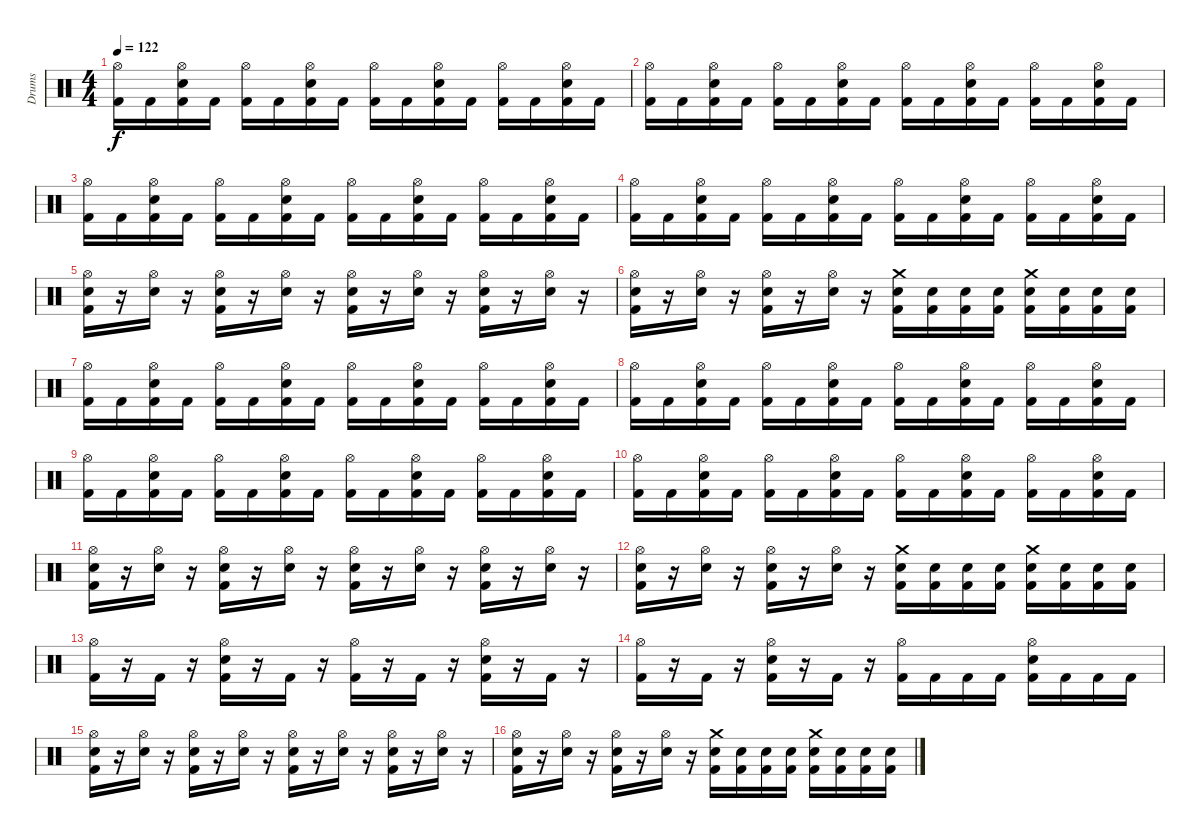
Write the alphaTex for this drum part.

\track ("Drums" "Drums") {instrument percussion}
\staff {score}
\articulation defaults
\ts (4 4)
\tempo 122
\clef neutral
\ks c
("Hi-Hat (open)" "Kick (hit) 2").16{dy f} "Kick (hit) 2".16 ("Hi-Hat (open)" "Snare (hit) 2" "Kick (hit) 2").16 "Kick (hit) 2".16 ("Hi-Hat (open)" "Kick (hit) 2").16 "Kick (hit) 2".16 ("Hi-Hat (open)" "Snare (hit) 2" "Kick (hit) 2").16 "Kick (hit) 2".16 ("Hi-Hat (open)" "Kick (hit) 2").16 "Kick (hit) 2".16 ("Hi-Hat (open)" "Snare (hit) 2" "Kick (hit) 2").16 "Kick (hit) 2".16 ("Hi-Hat (open)" "Kick (hit) 2").16 "Kick (hit) 2".16 ("Hi-Hat (open)" "Snare (hit) 2" "Kick (hit) 2").16 "Kick (hit) 2".16 |
("Hi-Hat (open)" "Kick (hit) 2").16 "Kick (hit) 2".16 ("Hi-Hat (open)" "Snare (hit) 2" "Kick (hit) 2").16 "Kick (hit) 2".16 ("Hi-Hat (open)" "Kick (hit) 2").16 "Kick (hit) 2".16 ("Hi-Hat (open)" "Snare (hit) 2" "Kick (hit) 2").16 "Kick (hit) 2".16 ("Hi-Hat (open)" "Kick (hit) 2").16 "Kick (hit) 2".16 ("Hi-Hat (open)" "Snare (hit) 2" "Kick (hit) 2").16 "Kick (hit) 2".16 ("Hi-Hat (open)" "Kick (hit) 2").16 "Kick (hit) 2".16 ("Hi-Hat (open)" "Snare (hit) 2" "Kick (hit) 2").16 "Kick (hit) 2".16 |
("Hi-Hat (open)" "Kick (hit) 2").16 "Kick (hit) 2".16 ("Hi-Hat (open)" "Snare (hit) 2" "Kick (hit) 2").16 "Kick (hit) 2".16 ("Hi-Hat (open)" "Kick (hit) 2").16 "Kick (hit) 2".16 ("Hi-Hat (open)" "Snare (hit) 2" "Kick (hit) 2").16 "Kick (hit) 2".16 ("Hi-Hat (open)" "Kick (hit) 2").16 "Kick (hit) 2".16 ("Hi-Hat (open)" "Snare (hit) 2" "Kick (hit) 2").16 "Kick (hit) 2".16 ("Hi-Hat (open)" "Kick (hit) 2").16 "Kick (hit) 2".16 ("Hi-Hat (open)" "Snare (hit) 2" "Kick (hit) 2").16 "Kick (hit) 2".16 |
("Hi-Hat (open)" "Kick (hit) 2").16 "Kick (hit) 2".16 ("Hi-Hat (open)" "Snare (hit) 2" "Kick (hit) 2").16 "Kick (hit) 2".16 ("Hi-Hat (open)" "Kick (hit) 2").16 "Kick (hit) 2".16 ("Hi-Hat (open)" "Snare (hit) 2" "Kick (hit) 2").16 "Kick (hit) 2".16 ("Hi-Hat (open)" "Kick (hit) 2").16 "Kick (hit) 2".16 ("Hi-Hat (open)" "Snare (hit) 2" "Kick (hit) 2").16 "Kick (hit) 2".16 ("Hi-Hat (open)" "Kick (hit) 2").16 "Kick (hit) 2".16 ("Hi-Hat (open)" "Snare (hit) 2" "Kick (hit) 2").16 "Kick (hit) 2".16 |
("Hi-Hat (open)" "Snare (hit) 2" "Kick (hit) 2").16 r.16 ("Hi-Hat (open)" "Snare (hit) 2").16 r.16 ("Hi-Hat (open)" "Snare (hit) 2" "Kick (hit) 2").16 r.16 ("Hi-Hat (open)" "Snare (hit) 2").16 r.16 ("Hi-Hat (open)" "Snare (hit) 2" "Kick (hit) 2").16 r.16 ("Hi-Hat (open)" "Snare (hit) 2").16 r.16 ("Hi-Hat (open)" "Snare (hit) 2" "Kick (hit) 2").16 r.16 ("Hi-Hat (open)" "Snare (hit) 2").16 r.16 |
("Hi-Hat (open)" "Snare (hit) 2" "Kick (hit) 2").16 r.16 ("Hi-Hat (open)" "Snare (hit) 2").16 r.16 ("Hi-Hat (open)" "Snare (hit) 2" "Kick (hit) 2").16 r.16 ("Hi-Hat (open)" "Snare (hit) 2").16 r.16 ("Crash medium (hit)" "Snare (hit) 2" "Kick (hit) 2").16 ("Snare (hit) 2" "Kick (hit) 2").16 ("Snare (hit) 2" "Kick (hit) 2").16 ("Snare (hit) 2" "Kick (hit) 2").16 ("Crash medium (hit)" "Snare (hit) 2" "Kick (hit) 2").16 ("Snare (hit) 2" "Kick (hit) 2").16 ("Snare (hit) 2" "Kick (hit) 2").16 ("Snare (hit) 2" "Kick (hit) 2").16 |
("Hi-Hat (open)" "Kick (hit) 2").16 "Kick (hit) 2".16 ("Hi-Hat (open)" "Snare (hit) 2" "Kick (hit) 2").16 "Kick (hit) 2".16 ("Hi-Hat (open)" "Kick (hit) 2").16 "Kick (hit) 2".16 ("Hi-Hat (open)" "Snare (hit) 2" "Kick (hit) 2").16 "Kick (hit) 2".16 ("Hi-Hat (open)" "Kick (hit) 2").16 "Kick (hit) 2".16 ("Hi-Hat (open)" "Snare (hit) 2" "Kick (hit) 2").16 "Kick (hit) 2".16 ("Hi-Hat (open)" "Kick (hit) 2").16 "Kick (hit) 2".16 ("Hi-Hat (open)" "Snare (hit) 2" "Kick (hit) 2").16 "Kick (hit) 2".16 |
("Hi-Hat (open)" "Kick (hit) 2").16 "Kick (hit) 2".16 ("Hi-Hat (open)" "Snare (hit) 2" "Kick (hit) 2").16 "Kick (hit) 2".16 ("Hi-Hat (open)" "Kick (hit) 2").16 "Kick (hit) 2".16 ("Hi-Hat (open)" "Snare (hit) 2" "Kick (hit) 2").16 "Kick (hit) 2".16 ("Hi-Hat (open)" "Kick (hit) 2").16 "Kick (hit) 2".16 ("Hi-Hat (open)" "Snare (hit) 2" "Kick (hit) 2").16 "Kick (hit) 2".16 ("Hi-Hat (open)" "Kick (hit) 2").16 "Kick (hit) 2".16 ("Hi-Hat (open)" "Snare (hit) 2" "Kick (hit) 2").16 "Kick (hit) 2".16 |
("Hi-Hat (open)" "Kick (hit) 2").16 "Kick (hit) 2".16 ("Hi-Hat (open)" "Snare (hit) 2" "Kick (hit) 2").16 "Kick (hit) 2".16 ("Hi-Hat (open)" "Kick (hit) 2").16 "Kick (hit) 2".16 ("Hi-Hat (open)" "Snare (hit) 2" "Kick (hit) 2").16 "Kick (hit) 2".16 ("Hi-Hat (open)" "Kick (hit) 2").16 "Kick (hit) 2".16 ("Hi-Hat (open)" "Snare (hit) 2" "Kick (hit) 2").16 "Kick (hit) 2".16 ("Hi-Hat (open)" "Kick (hit) 2").16 "Kick (hit) 2".16 ("Hi-Hat (open)" "Snare (hit) 2" "Kick (hit) 2").16 "Kick (hit) 2".16 |
("Hi-Hat (open)" "Kick (hit) 2").16 "Kick (hit) 2".16 ("Hi-Hat (open)" "Snare (hit) 2" "Kick (hit) 2").16 "Kick (hit) 2".16 ("Hi-Hat (open)" "Kick (hit) 2").16 "Kick (hit) 2".16 ("Hi-Hat (open)" "Snare (hit) 2" "Kick (hit) 2").16 "Kick (hit) 2".16 ("Hi-Hat (open)" "Kick (hit) 2").16 "Kick (hit) 2".16 ("Hi-Hat (open)" "Snare (hit) 2" "Kick (hit) 2").16 "Kick (hit) 2".16 ("Hi-Hat (open)" "Kick (hit) 2").16 "Kick (hit) 2".16 ("Hi-Hat (open)" "Snare (hit) 2" "Kick (hit) 2").16 "Kick (hit) 2".16 |
("Hi-Hat (open)" "Snare (hit) 2" "Kick (hit) 2").16 r.16 ("Hi-Hat (open)" "Snare (hit) 2").16 r.16 ("Hi-Hat (open)" "Snare (hit) 2" "Kick (hit) 2").16 r.16 ("Hi-Hat (open)" "Snare (hit) 2").16 r.16 ("Hi-Hat (open)" "Snare (hit) 2" "Kick (hit) 2").16 r.16 ("Hi-Hat (open)" "Snare (hit) 2").16 r.16 ("Hi-Hat (open)" "Snare (hit) 2" "Kick (hit) 2").16 r.16 ("Hi-Hat (open)" "Snare (hit) 2").16 r.16 |
("Hi-Hat (open)" "Snare (hit) 2" "Kick (hit) 2").16 r.16 ("Hi-Hat (open)" "Snare (hit) 2").16 r.16 ("Hi-Hat (open)" "Snare (hit) 2" "Kick (hit) 2").16 r.16 ("Hi-Hat (open)" "Snare (hit) 2").16 r.16 ("Crash medium (hit)" "Snare (hit) 2" "Kick (hit) 2").16 ("Snare (hit) 2" "Kick (hit) 2").16 ("Snare (hit) 2" "Kick (hit) 2").16 ("Snare (hit) 2" "Kick (hit) 2").16 ("Crash medium (hit)" "Snare (hit) 2" "Kick (hit) 2").16 ("Snare (hit) 2" "Kick (hit) 2").16 ("Snare (hit) 2" "Kick (hit) 2").16 ("Snare (hit) 2" "Kick (hit) 2").16 |
("Hi-Hat (open)" "Kick (hit) 2").16 r.16 "Kick (hit) 2".16 r.16 ("Hi-Hat (open)" "Snare (hit) 2" "Kick (hit) 2").16 r.16 "Kick (hit) 2".16 r.16 ("Hi-Hat (open)" "Kick (hit) 2").16 r.16 "Kick (hit) 2".16 r.16 ("Hi-Hat (open)" "Snare (hit) 2" "Kick (hit) 2").16 r.16 "Kick (hit) 2".16 r.16 |
("Hi-Hat (open)" "Kick (hit) 2").16 r.16 "Kick (hit) 2".16 r.16 ("Hi-Hat (open)" "Snare (hit) 2" "Kick (hit) 2").16 r.16 "Kick (hit) 2".16 r.16 ("Hi-Hat (open)" "Kick (hit) 2").16 "Kick (hit) 2".16 "Kick (hit) 2".16 "Kick (hit) 2".16 ("Hi-Hat (open)" "Snare (hit) 2" "Kick (hit) 2").16 "Kick (hit) 2".16 "Kick (hit) 2".16 "Kick (hit) 2".16 |
("Hi-Hat (open)" "Snare (hit) 2" "Kick (hit) 2").16 r.16 ("Hi-Hat (open)" "Snare (hit) 2").16 r.16 ("Hi-Hat (open)" "Snare (hit) 2" "Kick (hit) 2").16 r.16 ("Hi-Hat (open)" "Snare (hit) 2").16 r.16 ("Hi-Hat (open)" "Snare (hit) 2" "Kick (hit) 2").16 r.16 ("Hi-Hat (open)" "Snare (hit) 2").16 r.16 ("Hi-Hat (open)" "Snare (hit) 2" "Kick (hit) 2").16 r.16 ("Hi-Hat (open)" "Snare (hit) 2").16 r.16 |
("Hi-Hat (open)" "Snare (hit) 2" "Kick (hit) 2").16 r.16 ("Hi-Hat (open)" "Snare (hit) 2").16 r.16 ("Hi-Hat (open)" "Snare (hit) 2" "Kick (hit) 2").16 r.16 ("Hi-Hat (open)" "Snare (hit) 2").16 r.16 ("Crash medium (hit)" "Snare (hit) 2" "Kick (hit) 2").16 ("Snare (hit) 2" "Kick (hit) 2").16 ("Snare (hit) 2" "Kick (hit) 2").16 ("Snare (hit) 2" "Kick (hit) 2").16 ("Crash medium (hit)" "Snare (hit) 2" "Kick (hit) 2").16 ("Snare (hit) 2" "Kick (hit) 2").16 ("Snare (hit) 2" "Kick (hit) 2").16 ("Snare (hit) 2" "Kick (hit) 2").16
